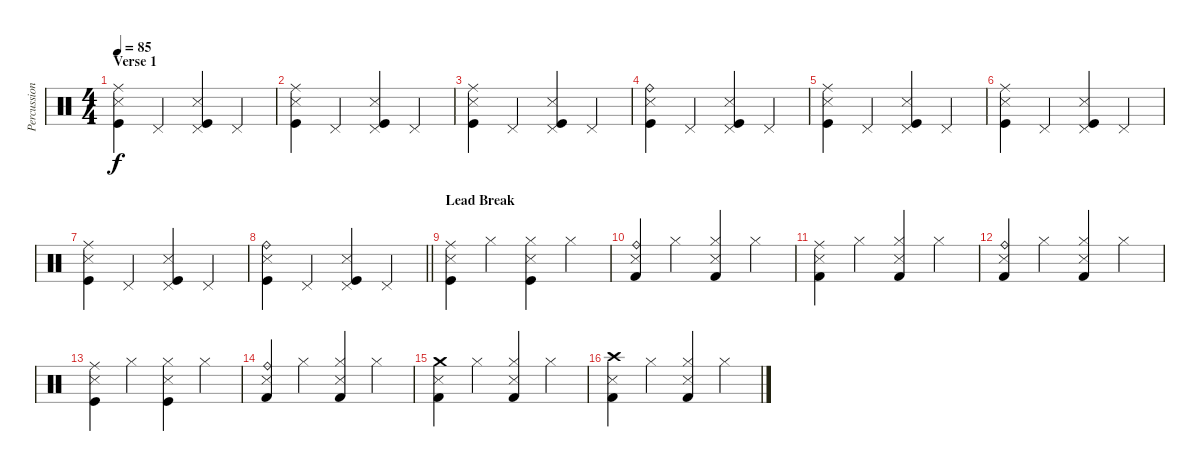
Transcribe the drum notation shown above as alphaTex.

\track ("Percussion" "Percussion") {instrument percussion}
\staff {score}
\articulation defaults
\ts (4 4)
\section ("" "Verse 1")
\tempo 85
\clef neutral
\ks c
("Ride (middle)" "Snare (side stick) 3" "Kick (hit)").4{dy f} "Pedal Hi-Hat (hit)".4 ("Pedal Hi-Hat (hit)" "Snare (side stick) 3" "Kick (hit)").4 "Pedal Hi-Hat (hit)".4 |
("Ride (middle)" "Snare (side stick) 3" "Kick (hit)").4 "Pedal Hi-Hat (hit)".4 ("Pedal Hi-Hat (hit)" "Snare (side stick) 3" "Kick (hit)").4 "Pedal Hi-Hat (hit)".4 |
("Ride (middle)" "Snare (side stick) 3" "Kick (hit)").4 "Pedal Hi-Hat (hit)".4 ("Pedal Hi-Hat (hit)" "Snare (side stick) 3" "Kick (hit)").4 "Pedal Hi-Hat (hit)".4 |
("Ride (bell)" "Snare (side stick) 3" "Kick (hit)").4 "Pedal Hi-Hat (hit)".4 ("Pedal Hi-Hat (hit)" "Snare (side stick) 3" "Kick (hit)").4 "Pedal Hi-Hat (hit)".4 |
("Ride (middle)" "Snare (side stick) 3" "Kick (hit)").4 "Pedal Hi-Hat (hit)".4 ("Pedal Hi-Hat (hit)" "Snare (side stick) 3" "Kick (hit)").4 "Pedal Hi-Hat (hit)".4 |
("Ride (middle)" "Snare (side stick) 3" "Kick (hit)").4 "Pedal Hi-Hat (hit)".4 ("Pedal Hi-Hat (hit)" "Snare (side stick) 3" "Kick (hit)").4 "Pedal Hi-Hat (hit)".4 |
("Ride (middle)" "Snare (side stick) 3" "Kick (hit)").4 "Pedal Hi-Hat (hit)".4 ("Pedal Hi-Hat (hit)" "Snare (side stick) 3" "Kick (hit)").4 "Pedal Hi-Hat (hit)".4 |
\barLineRight lightlight
("Ride (bell)" "Snare (side stick) 3" "Kick (hit)").4 "Pedal Hi-Hat (hit)".4 ("Pedal Hi-Hat (hit)" "Snare (side stick) 3" "Kick (hit)").4 "Pedal Hi-Hat (hit)".4 |
\section ("" "Lead Break")
("Ride (middle)" "Snare (side stick) 3" "Kick (hit)").4 "Hi-Hat (closed)".4 ("Hi-Hat (closed)" "Snare (side stick) 3" "Kick (hit)").4 "Hi-Hat (closed)".4 |
("Ride (bell)" "Snare (side stick) 3" "Kick (hit) 2").4 "Hi-Hat (closed)".4 ("Hi-Hat (closed)" "Snare (side stick) 3" "Kick (hit) 2").4 "Hi-Hat (closed)".4 |
("Ride (middle)" "Snare (side stick) 3" "Kick (hit) 2").4 "Hi-Hat (closed)".4 ("Hi-Hat (closed)" "Snare (side stick) 3" "Kick (hit) 2").4 "Hi-Hat (closed)".4 |
("Ride (bell)" "Snare (side stick) 3" "Kick (hit) 2").4 "Hi-Hat (closed)".4 ("Hi-Hat (closed)" "Snare (side stick) 3" "Kick (hit) 2").4 "Hi-Hat (closed)".4 |
("Ride (middle)" "Snare (side stick) 3" "Kick (hit)").4 "Hi-Hat (closed)".4 ("Hi-Hat (closed)" "Snare (side stick) 3" "Kick (hit)").4 "Hi-Hat (closed)".4 |
("Ride (bell)" "Snare (side stick) 3" "Kick (hit) 2").4 "Hi-Hat (closed)".4 ("Hi-Hat (closed)" "Snare (side stick) 3" "Kick (hit) 2").4 "Hi-Hat (closed)".4 |
("Crash medium (hit)" "Snare (side stick) 3" "Kick (hit) 2").4 "Hi-Hat (closed)".4 ("Hi-Hat (closed)" "Snare (side stick) 3" "Kick (hit) 2").4 "Hi-Hat (closed)".4 |
("Crash high (hit)" "Snare (side stick) 3" "Kick (hit) 2").4 "Hi-Hat (closed)".4 ("Hi-Hat (closed)" "Snare (side stick) 3" "Kick (hit) 2").4 "Hi-Hat (closed)".4
